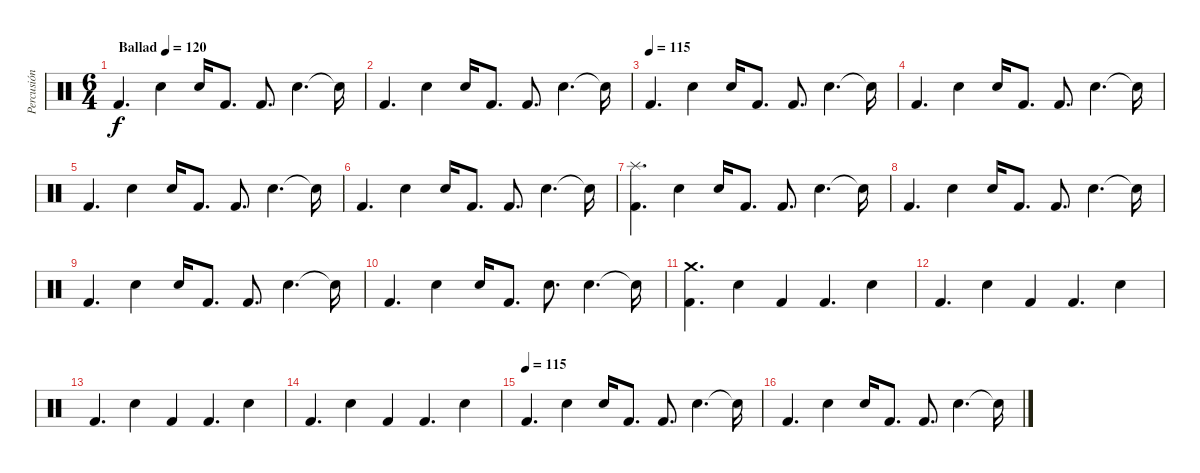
\track ("Percusión" "Percusión") {instrument percussion}
\staff {score}
\articulation defaults
\ts (6 4)
\tempo (120 "Ballad")
\clef neutral
\ks c "Kick (hit) 2".4{d dy f volume 16 balance 8} "Snare (hit) 2".4 "Snare (hit) 2".16 "Kick (hit) 2".8{d} "Kick (hit) 2".8{d} "Snare (hit) 2".4{d} "Snare (hit)"{t}.16
|
"Kick (hit) 2".4{d} "Snare (hit) 2".4 "Snare (hit) 2".16 "Kick (hit) 2".8{d} "Kick (hit) 2".8{d} "Snare (hit) 2".4{d} "Snare (hit)"{t}.16 |
\tempo (115)
"Kick (hit) 2".4{d} "Snare (hit) 2".4 "Snare (hit) 2".16 "Kick (hit) 2".8{d} "Kick (hit) 2".8{d} "Snare (hit) 2".4{d} "Snare (hit)"{t}.16 |
"Kick (hit) 2".4{d} "Snare (hit) 2".4 "Snare (hit) 2".16 "Kick (hit) 2".8{d} "Kick (hit) 2".8{d} "Snare (hit) 2".4{d} "Snare (hit)"{t}.16 |
"Kick (hit) 2".4{d} "Snare (hit) 2".4 "Snare (hit) 2".16 "Kick (hit) 2".8{d} "Kick (hit) 2".8{d} "Snare (hit) 2".4{d} "Snare (hit)"{t}.16 |
"Kick (hit) 2".4{d} "Snare (hit) 2".4 "Snare (hit) 2".16 "Kick (hit) 2".8{d} "Kick (hit) 2".8{d} "Snare (hit) 2".4{d} "Snare (hit)"{t}.16 |
("Kick (hit) 2" "Splash (hit)").4{d} "Snare (hit) 2".4 "Snare (hit) 2".16 "Kick (hit) 2".8{d} "Kick (hit) 2".8{d} "Snare (hit) 2".4{d} "Snare (hit)"{t}.16 |
"Kick (hit) 2".4{d} "Snare (hit) 2".4 "Snare (hit) 2".16 "Kick (hit) 2".8{d} "Kick (hit) 2".8{d} "Snare (hit) 2".4{d} "Snare (hit)"{t}.16 |
"Kick (hit) 2".4{d} "Snare (hit) 2".4 "Snare (hit) 2".16 "Kick (hit) 2".8{d} "Kick (hit) 2".8{d} "Snare (hit) 2".4{d} "Snare (hit)"{t}.16 |
"Kick (hit) 2".4{d} "Snare (hit) 2".4 "Snare (hit) 2".16 "Kick (hit) 2".8{d} "Snare (hit) 2".8{d} "Snare (hit) 2".4{d} "Snare (hit) 2"{t}.16 |
("Kick (hit) 2" "Crash medium (hit)").4{d} "Electric Snare (hit)".4 "Kick (hit) 2".4 "Kick (hit) 2".4{d} "Electric Snare (hit)".4 |
"Kick (hit) 2".4{d} "Electric Snare (hit)".4 "Kick (hit) 2".4 "Kick (hit) 2".4{d} "Electric Snare (hit)".4 |
"Kick (hit) 2".4{d} "Electric Snare (hit)".4 "Kick (hit) 2".4 "Kick (hit) 2".4{d} "Electric Snare (hit)".4 |
"Kick (hit) 2".4{d} "Electric Snare (hit)".4 "Kick (hit) 2".4 "Kick (hit) 2".4{d} "Electric Snare (hit)".4 |
\tempo (115)
"Kick (hit) 2".4{d} "Snare (hit) 2".4 "Snare (hit) 2".16 "Kick (hit) 2".8{d} "Kick (hit) 2".8{d} "Snare (hit) 2".4{d} "Snare (hit)"{t}.16 |
"Kick (hit) 2".4{d} "Snare (hit) 2".4 "Snare (hit) 2".16 "Kick (hit) 2".8{d} "Kick (hit) 2".8{d} "Snare (hit) 2".4{d} "Snare (hit)"{t}.16
